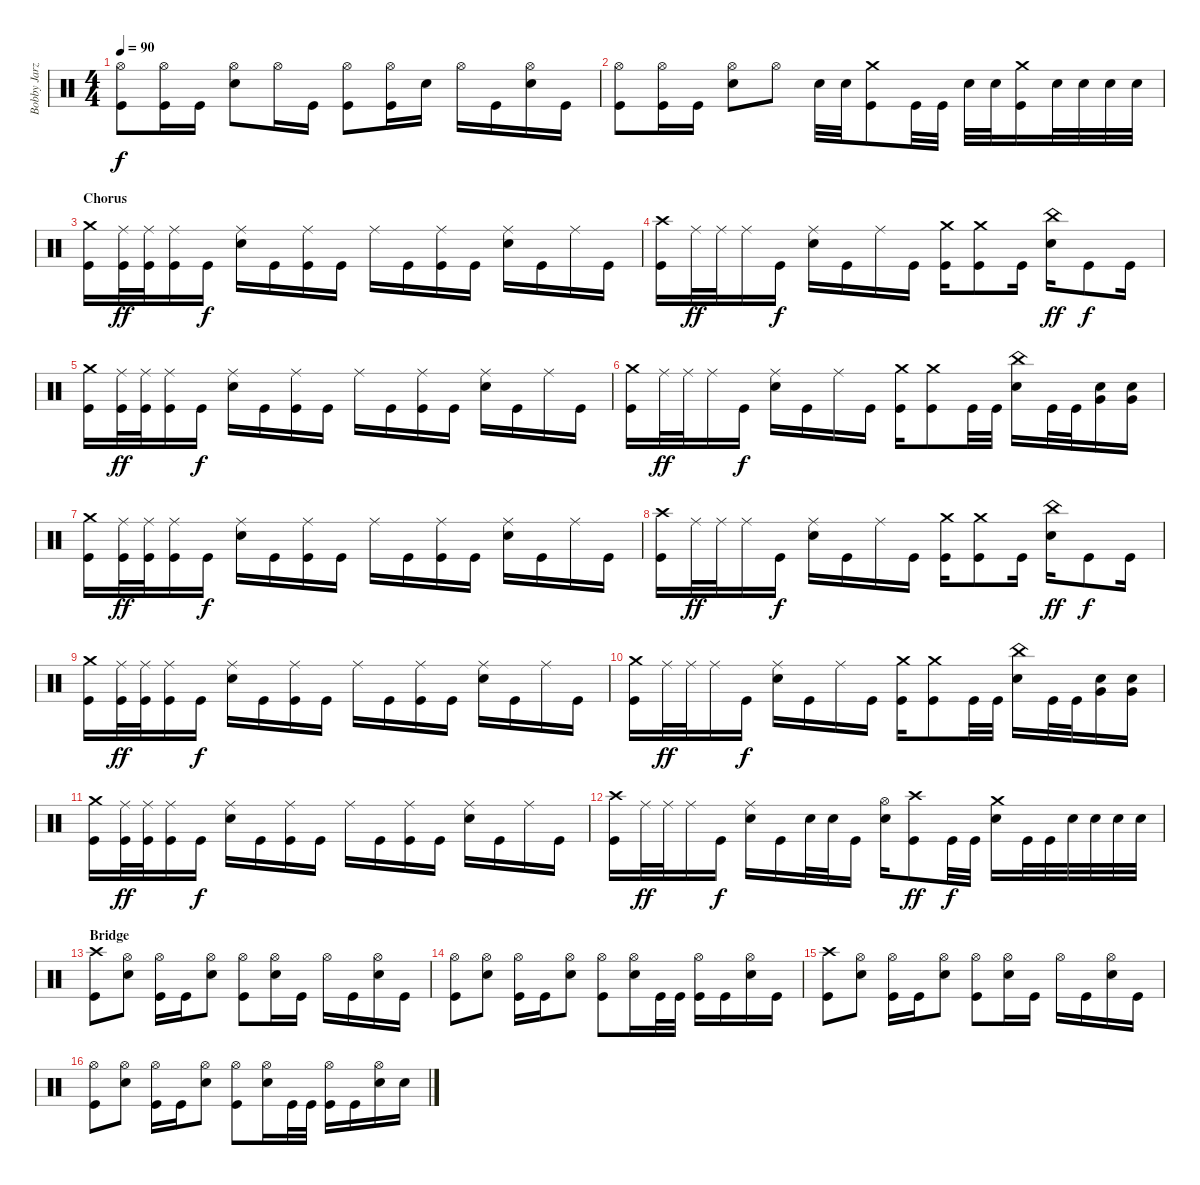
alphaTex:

\track ("Bobby Jarzombek" "Bobby Jarz") {instrument percussion}
\staff {score}
\articulation defaults
\ts (4 4)
\tempo 90
\clef neutral
\ks c
("Hi-Hat (open)" "Kick (hit)").8{dy f} ("Hi-Hat (open)" "Kick (hit)").16 "Kick (hit)".16 ("Hi-Hat (open)" "Electric Snare (hit)").8 "Hi-Hat (open)".16 "Kick (hit)".16 ("Hi-Hat (open)" "Kick (hit)").8 ("Hi-Hat (open)" "Kick (hit)").16 "Electric Snare (hit)".16 "Hi-Hat (open)".16 "Kick (hit)".16 ("Hi-Hat (open)" "Electric Snare (hit)").16 "Kick (hit)".16 |
("Hi-Hat (open)" "Kick (hit)").8 ("Hi-Hat (open)" "Kick (hit)").16 "Kick (hit)".16 ("Hi-Hat (open)" "Electric Snare (hit)").8 "Hi-Hat (open)".8 "Electric Snare (hit)".32 "Electric Snare (hit)".32 ("Crash medium (hit)" "Kick (hit)").8 "Kick (hit)".32 "Kick (hit)".32 "Electric Snare (hit)".32 "Electric Snare (hit)".32 ("Crash medium (hit)" "Kick (hit)").16 "Electric Snare (hit)".32 "Electric Snare (hit)".32 "Electric Snare (hit)".32 "Electric Snare (hit)".32 |
\section ("" "Chorus")
("Crash medium (hit)" "Kick (hit)").16 ("Ride (middle)" "Kick (hit)").32{dy ff} ("Ride (middle)" "Kick (hit)").32 ("Ride (middle)" "Kick (hit)").16 "Kick (hit)".16{dy f} ("Ride (middle)" "Electric Snare (hit)").16 "Kick (hit)".16 ("Ride (middle)" "Kick (hit)").16 "Kick (hit)".16 "Ride (middle)".16 "Kick (hit)".16 ("Ride (middle)" "Kick (hit)").16 "Kick (hit)".16 ("Ride (middle)" "Electric Snare (hit)").16 "Kick (hit)".16 "Ride (middle)".16 "Kick (hit)".16 |
("Crash high (hit)" "Kick (hit)").16 "Ride (middle)".32{dy ff} "Ride (middle)".32 "Ride (middle)".16 "Kick (hit)".16{dy f} ("Ride (middle)" "Electric Snare (hit)").16 "Kick (hit)".16 "Ride (middle)".16 "Kick (hit)".16 ("Crash medium (hit)" "Kick (hit)").16 ("Crash medium (hit)" "Kick (hit)").8 "Kick (hit)".16 ("China (hit)" "Electric Snare (hit)").16{dy ff} "Kick (hit)".8{dy f} "Kick (hit)".16 |
("Crash medium (hit)" "Kick (hit)").16 ("Ride (middle)" "Kick (hit)").32{dy ff} ("Ride (middle)" "Kick (hit)").32 ("Ride (middle)" "Kick (hit)").16 "Kick (hit)".16{dy f} ("Ride (middle)" "Electric Snare (hit)").16 "Kick (hit)".16 ("Ride (middle)" "Kick (hit)").16 "Kick (hit)".16 "Ride (middle)".16 "Kick (hit)".16 ("Ride (middle)" "Kick (hit)").16 "Kick (hit)".16 ("Ride (middle)" "Electric Snare (hit)").16 "Kick (hit)".16 "Ride (middle)".16 "Kick (hit)".16 |
("Crash medium (hit)" "Kick (hit)").16 "Ride (middle)".32{dy ff} "Ride (middle)".32 "Ride (middle)".16 "Kick (hit)".16{dy f} ("Ride (middle)" "Electric Snare (hit)").16 "Kick (hit)".16 "Ride (middle)".16 "Kick (hit)".16 ("Crash medium (hit)" "Kick (hit)").16 ("Crash medium (hit)" "Kick (hit)").8 "Kick (hit)".32 "Kick (hit)".32 ("China (hit)" "Electric Snare (hit)").16 "Kick (hit)".32 "Kick (hit)".32 ("Very Low Tom (hit)" "Electric Snare (hit)").16 ("Very Low Tom (hit)" "Electric Snare (hit)").16 |
("Crash medium (hit)" "Kick (hit)").16 ("Ride (middle)" "Kick (hit)").32{dy ff} ("Ride (middle)" "Kick (hit)").32 ("Ride (middle)" "Kick (hit)").16 "Kick (hit)".16{dy f} ("Ride (middle)" "Electric Snare (hit)").16 "Kick (hit)".16 ("Ride (middle)" "Kick (hit)").16 "Kick (hit)".16 "Ride (middle)".16 "Kick (hit)".16 ("Ride (middle)" "Kick (hit)").16 "Kick (hit)".16 ("Ride (middle)" "Electric Snare (hit)").16 "Kick (hit)".16 "Ride (middle)".16 "Kick (hit)".16 |
("Crash high (hit)" "Kick (hit)").16 "Ride (middle)".32{dy ff} "Ride (middle)".32 "Ride (middle)".16 "Kick (hit)".16{dy f} ("Ride (middle)" "Electric Snare (hit)").16 "Kick (hit)".16 "Ride (middle)".16 "Kick (hit)".16 ("Crash medium (hit)" "Kick (hit)").16 ("Crash medium (hit)" "Kick (hit)").8 "Kick (hit)".16 ("China (hit)" "Electric Snare (hit)").16{dy ff} "Kick (hit)".8{dy f} "Kick (hit)".16 |
("Crash medium (hit)" "Kick (hit)").16 ("Ride (middle)" "Kick (hit)").32{dy ff} ("Ride (middle)" "Kick (hit)").32 ("Ride (middle)" "Kick (hit)").16 "Kick (hit)".16{dy f} ("Ride (middle)" "Electric Snare (hit)").16 "Kick (hit)".16 ("Ride (middle)" "Kick (hit)").16 "Kick (hit)".16 "Ride (middle)".16 "Kick (hit)".16 ("Ride (middle)" "Kick (hit)").16 "Kick (hit)".16 ("Ride (middle)" "Electric Snare (hit)").16 "Kick (hit)".16 "Ride (middle)".16 "Kick (hit)".16 |
("Crash medium (hit)" "Kick (hit)").16 "Ride (middle)".32{dy ff} "Ride (middle)".32 "Ride (middle)".16 "Kick (hit)".16{dy f} ("Ride (middle)" "Electric Snare (hit)").16 "Kick (hit)".16 "Ride (middle)".16 "Kick (hit)".16 ("Crash medium (hit)" "Kick (hit)").16 ("Crash medium (hit)" "Kick (hit)").8 "Kick (hit)".32 "Kick (hit)".32 ("China (hit)" "Electric Snare (hit)").16 "Kick (hit)".32 "Kick (hit)".32 ("Very Low Tom (hit)" "Electric Snare (hit)").16 ("Very Low Tom (hit)" "Electric Snare (hit)").16 |
("Crash medium (hit)" "Kick (hit)").16 ("Ride (middle)" "Kick (hit)").32{dy ff} ("Ride (middle)" "Kick (hit)").32 ("Ride (middle)" "Kick (hit)").16 "Kick (hit)".16{dy f} ("Ride (middle)" "Electric Snare (hit)").16 "Kick (hit)".16 ("Ride (middle)" "Kick (hit)").16 "Kick (hit)".16 "Ride (middle)".16 "Kick (hit)".16 ("Ride (middle)" "Kick (hit)").16 "Kick (hit)".16 ("Ride (middle)" "Electric Snare (hit)").16 "Kick (hit)".16 "Ride (middle)".16 "Kick (hit)".16 |
("Crash high (hit)" "Kick (hit)").16 "Ride (middle)".32{dy ff} "Ride (middle)".32 "Ride (middle)".16 "Kick (hit)".16{dy f} ("Ride (middle)" "Electric Snare (hit)").16 "Kick (hit)".16 "Electric Snare (hit)".32 "Electric Snare (hit)".32 "Kick (hit)".16 ("Hi-Hat (open)" "Electric Snare (hit)").16 ("Crash high (hit)" "Kick (hit)").8{dy ff} "Kick (hit)".32{dy f} "Kick (hit)".32 ("Crash medium (hit)" "Electric Snare (hit)").16 "Kick (hit)".32 "Kick (hit)".32 "Electric Snare (hit)".32 "Electric Snare (hit)".32 "Electric Snare (hit)".32 "Electric Snare (hit)".32 |
\section ("" "Bridge")
("Crash high (hit)" "Kick (hit)").8 ("Hi-Hat (open)" "Electric Snare (hit)").8 ("Hi-Hat (open)" "Kick (hit)").16 "Kick (hit)".16 ("Hi-Hat (open)" "Electric Snare (hit)").8 ("Hi-Hat (open)" "Kick (hit)").8 ("Hi-Hat (open)" "Electric Snare (hit)").16 "Kick (hit)".16 "Hi-Hat (open)".16 "Kick (hit)".16 ("Hi-Hat (open)" "Electric Snare (hit)").16 "Kick (hit)".16 |
("Hi-Hat (open)" "Kick (hit)").8 ("Hi-Hat (open)" "Electric Snare (hit)").8 ("Hi-Hat (open)" "Kick (hit)").16 "Kick (hit)".16 ("Hi-Hat (open)" "Electric Snare (hit)").8 ("Hi-Hat (open)" "Kick (hit)").8 ("Hi-Hat (open)" "Electric Snare (hit)").16 "Kick (hit)".32 "Kick (hit)".32 ("Hi-Hat (open)" "Kick (hit)").16 "Kick (hit)".16 ("Hi-Hat (open)" "Electric Snare (hit)").16 "Kick (hit)".16 |
("Crash high (hit)" "Kick (hit)").8 ("Hi-Hat (open)" "Electric Snare (hit)").8 ("Hi-Hat (open)" "Kick (hit)").16 "Kick (hit)".16 ("Hi-Hat (open)" "Electric Snare (hit)").8 ("Hi-Hat (open)" "Kick (hit)").8 ("Hi-Hat (open)" "Electric Snare (hit)").16 "Kick (hit)".16 "Hi-Hat (open)".16 "Kick (hit)".16 ("Hi-Hat (open)" "Electric Snare (hit)").16 "Kick (hit)".16 |
("Hi-Hat (open)" "Kick (hit)").8 ("Hi-Hat (open)" "Electric Snare (hit)").8 ("Hi-Hat (open)" "Kick (hit)").16 "Kick (hit)".16 ("Hi-Hat (open)" "Electric Snare (hit)").8 ("Hi-Hat (open)" "Kick (hit)").8 ("Hi-Hat (open)" "Electric Snare (hit)").16 "Kick (hit)".32 "Kick (hit)".32 ("Hi-Hat (open)" "Kick (hit)").16 "Kick (hit)".16 ("Hi-Hat (open)" "Electric Snare (hit)").16 "Electric Snare (hit)".16
